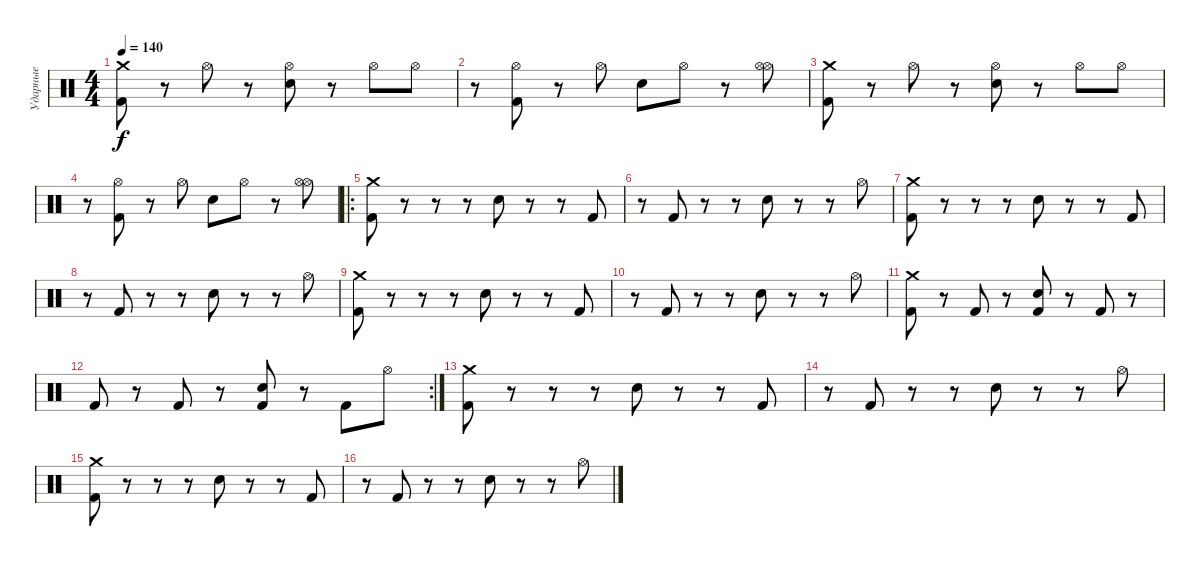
\track ("Ударные" "Ударные") {instrument percussion}
\staff {score}
\articulation defaults
\ts (4 4)
\tempo 140
\clef neutral
\ks c
("Crash medium (hit)" "Kick (hit) 2").8{dy f} r.8 "Hi-Hat (open)".8 r.8 ("Snare (hit) 2" "Hi-Hat (open)").8 r.8 "Hi-Hat (open)".8 "Hi-Hat (open)".8 |
r.8 ("Hi-Hat (open)" "Kick (hit) 2").8 r.8 "Hi-Hat (open)".8 "Snare (hit) 2".8 "Hi-Hat (open)".8 r.8 ("Hi-Hat (open)" "Hi-Hat (open)").8 |
("Crash medium (hit)" "Kick (hit) 2").8 r.8 "Hi-Hat (open)".8 r.8 ("Snare (hit) 2" "Hi-Hat (open)").8 r.8 "Hi-Hat (open)".8 "Hi-Hat (open)".8 |
r.8 ("Hi-Hat (open)" "Kick (hit) 2").8 r.8 "Hi-Hat (open)".8 "Snare (hit) 2".8 "Hi-Hat (open)".8 r.8 ("Hi-Hat (open)" "Hi-Hat (open)").8 |
\ro
("Crash medium (hit)" "Kick (hit) 2").8 r.8 r.8 r.8 "Snare (hit) 2".8 r.8 r.8 "Kick (hit) 2".8 |
r.8 "Kick (hit) 2".8 r.8 r.8 "Snare (hit) 2".8 r.8 r.8 "Hi-Hat (open)".8 |
("Crash medium (hit)" "Kick (hit) 2").8 r.8 r.8 r.8 "Snare (hit) 2".8 r.8 r.8 "Kick (hit) 2".8 |
r.8 "Kick (hit) 2".8 r.8 r.8 "Snare (hit) 2".8 r.8 r.8 "Hi-Hat (open)".8 |
("Crash medium (hit)" "Kick (hit) 2").8 r.8 r.8 r.8 "Snare (hit) 2".8 r.8 r.8 "Kick (hit) 2".8 |
r.8 "Kick (hit) 2".8 r.8 r.8 "Snare (hit) 2".8 r.8 r.8 "Hi-Hat (open)".8 |
("Crash medium (hit)" "Kick (hit) 2").8 r.8 "Kick (hit) 2".8 r.8 ("Snare (hit) 2" "Kick (hit) 2").8 r.8 "Kick (hit) 2".8 r.8 |
\rc 2 "Kick (hit) 2".8
r.8 "Kick (hit) 2".8 r.8 ("Snare (hit) 2" "Kick (hit) 2").8 r.8 "Kick (hit) 2".8 "Hi-Hat (open)".8 |
("Crash medium (hit)" "Kick (hit) 2").8 r.8 r.8 r.8 "Snare (hit) 2".8 r.8 r.8 "Kick (hit) 2".8 |
r.8 "Kick (hit) 2".8 r.8 r.8 "Snare (hit) 2".8 r.8 r.8 "Hi-Hat (open)".8 |
("Crash medium (hit)" "Kick (hit) 2").8 r.8 r.8 r.8 "Snare (hit) 2".8 r.8 r.8 "Kick (hit) 2".8 |
r.8 "Kick (hit) 2".8 r.8 r.8 "Snare (hit) 2".8 r.8 r.8 "Hi-Hat (open)".8
